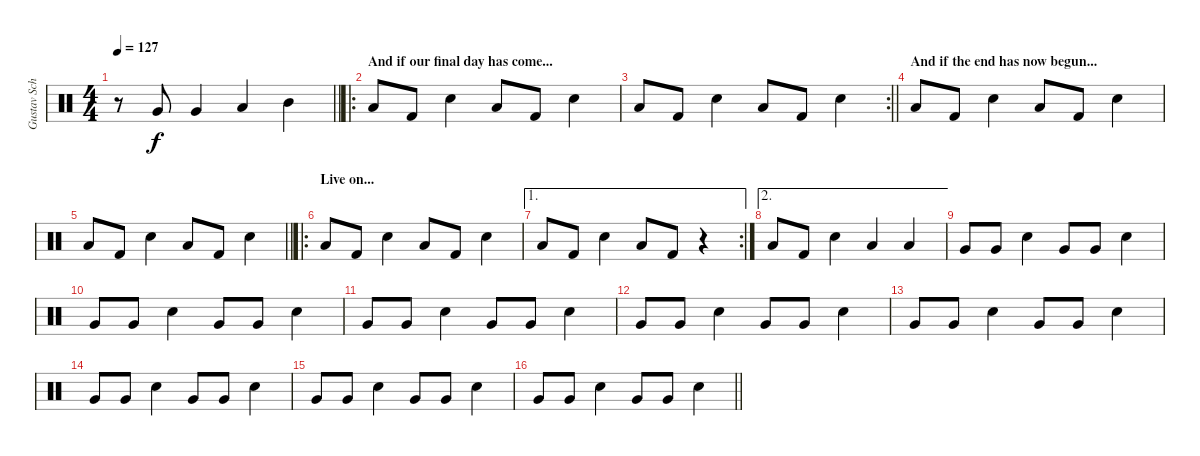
\track ("Gustav Schäfer" "Gustav Sch") {instrument percussion}
\staff {score}
\articulation defaults
\ts (4 4)
\tempo 127
\clef neutral
\barLineRight lightlight
\ks c
r.8{dy f} "Very Low Tom (hit)".8 "Very Low Tom (hit)".4 "Low Tom (hit)".4 "Mid Tom (hit)".4 |
\ro
\section ("" "And if our final day has come...")
"Low Tom (hit)".8 "Kick (hit) 2".8 "Electric Snare (hit)".4 "Low Tom (hit)".8 "Kick (hit) 2".8 "Electric Snare (hit)".4 |
\rc 2
\barLineRight lightlight "Low Tom (hit)".8 "Kick (hit) 2".8 "Electric Snare (hit)".4 "Low Tom (hit)".8 "Kick (hit) 2".8 "Electric Snare (hit)".4
|
\section ("" "And if the end has now begun...")
"Low Tom (hit)".8 "Kick (hit) 2".8 "Electric Snare (hit)".4 "Low Tom (hit)".8 "Kick (hit) 2".8 "Electric Snare (hit)".4 |
\barLineRight lightlight "Low Tom (hit)".8 "Kick (hit) 2".8 "Electric Snare (hit)".4 "Low Tom (hit)".8 "Kick (hit) 2".8 "Electric Snare (hit)".4
|
\ro
\section ("" "Live on...")
"Low Tom (hit)".8 "Kick (hit) 2".8 "Electric Snare (hit)".4 "Low Tom (hit)".8 "Kick (hit) 2".8 "Electric Snare (hit)".4 |
\ae 1
\rc 2 "Low Tom (hit)".8 "Kick (hit) 2".8 "Electric Snare (hit)".4 "Low Tom (hit)".8 "Kick (hit) 2".8
r.4 |
\ae 2 "Low Tom (hit)".8 "Kick (hit) 2".8 "Electric Snare (hit)".4 "Low Tom (hit)".4 "Low Tom (hit)".4
|
"Very Low Tom (hit)".8 "Very Low Tom (hit)".8 "Electric Snare (hit)".4 "Very Low Tom (hit)".8 "Very Low Tom (hit)".8 "Electric Snare (hit)".4 |
"Very Low Tom (hit)".8 "Very Low Tom (hit)".8 "Electric Snare (hit)".4 "Very Low Tom (hit)".8 "Very Low Tom (hit)".8 "Electric Snare (hit)".4 |
"Very Low Tom (hit)".8 "Very Low Tom (hit)".8 "Electric Snare (hit)".4 "Very Low Tom (hit)".8 "Very Low Tom (hit)".8 "Electric Snare (hit)".4 |
"Very Low Tom (hit)".8 "Very Low Tom (hit)".8 "Electric Snare (hit)".4 "Very Low Tom (hit)".8 "Very Low Tom (hit)".8 "Electric Snare (hit)".4 |
"Very Low Tom (hit)".8 "Very Low Tom (hit)".8 "Electric Snare (hit)".4 "Very Low Tom (hit)".8 "Very Low Tom (hit)".8 "Electric Snare (hit)".4 |
"Very Low Tom (hit)".8 "Very Low Tom (hit)".8 "Electric Snare (hit)".4 "Very Low Tom (hit)".8 "Very Low Tom (hit)".8 "Electric Snare (hit)".4 |
"Very Low Tom (hit)".8 "Very Low Tom (hit)".8 "Electric Snare (hit)".4 "Very Low Tom (hit)".8 "Very Low Tom (hit)".8 "Electric Snare (hit)".4 |
\barLineRight lightlight "Very Low Tom (hit)".8 "Very Low Tom (hit)".8 "Electric Snare (hit)".4 "Very Low Tom (hit)".8 "Very Low Tom (hit)".8 "Electric Snare (hit)".4
